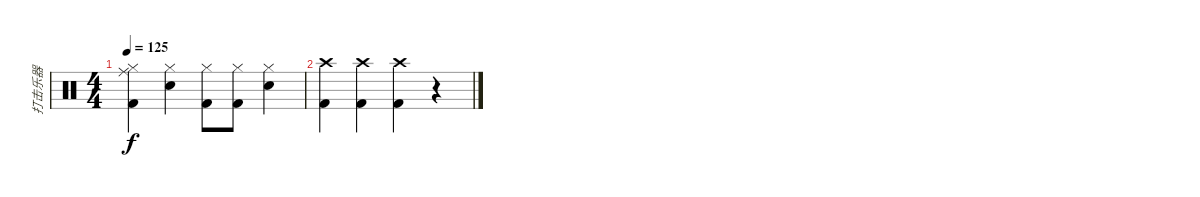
\track ("打击乐器" "打击乐器") {instrument percussion}
\staff {score}
\articulation defaults
\ts (4 4)
\tempo 125
\clef neutral
\ks c
("Ride (middle)" "Hi-Hat (closed)" "Kick (hit) 2").4{dy f} ("Hi-Hat (closed)" "Snare (hit) 2").4 ("Hi-Hat (closed)" "Kick (hit) 2").8 ("Hi-Hat (closed)" "Kick (hit) 2").8 ("Hi-Hat (closed)" "Snare (hit) 2").4 |
("Crash high (hit)" "Kick (hit) 2").4 ("Crash high (hit)" "Kick (hit) 2").4 ("Crash high (hit)" "Kick (hit) 2").4 r.4
